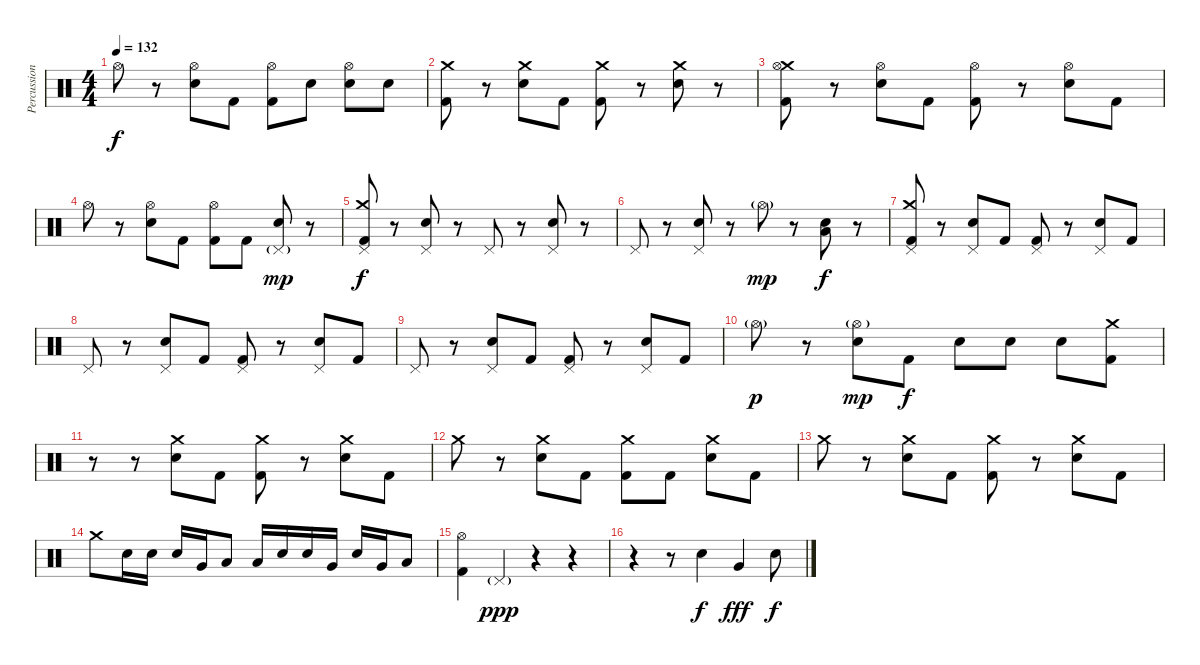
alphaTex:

\track ("Percussion" "Percussion") {instrument percussion}
\staff {score}
\articulation defaults
\ts (4 4)
\tempo 132
\clef neutral
\ks c "Hi-Hat (open)".8{dy f}
r.8 ("Hi-Hat (open)" "Snare (hit) 2").8 "Kick (hit) 2".8 ("Hi-Hat (open)" "Kick (hit) 2").8 "Snare (hit) 2".8 ("Hi-Hat (open)" "Snare (hit) 2").8 "Snare (hit) 2".8 |
("Crash medium (hit)" "Kick (hit) 2").8 r.8 ("Crash medium (hit)" "Snare (hit) 2").8 "Kick (hit) 2".8 ("Crash medium (hit)" "Kick (hit) 2").8 r.8 ("Crash medium (hit)" "Snare (hit) 2").8 r.8 |
("Crash medium (hit)" "Hi-Hat (open)" "Kick (hit) 2").8 r.8 ("Hi-Hat (open)" "Snare (hit) 2").8 "Kick (hit) 2".8 ("Hi-Hat (open)" "Kick (hit) 2").8 r.8 ("Hi-Hat (open)" "Snare (hit) 2").8 "Kick (hit) 2".8 |
"Hi-Hat (open)".8 r.8 ("Hi-Hat (open)" "Snare (hit) 2").8 "Kick (hit) 2".8 ("Hi-Hat (open)" "Kick (hit) 2").8 "Kick (hit) 2".8 ("Pedal Hi-Hat (hit)"{g} "Snare (hit) 2").8{dy mp} r.8 |
("Crash medium (hit)" "Pedal Hi-Hat (hit)" "Kick (hit) 2").8{dy f} r.8 ("Pedal Hi-Hat (hit)" "Snare (hit) 2").8 r.8 "Pedal Hi-Hat (hit)".8 r.8 ("Pedal Hi-Hat (hit)" "Snare (hit) 2").8 r.8 |
"Pedal Hi-Hat (hit)".8 r.8 ("Pedal Hi-Hat (hit)" "Snare (hit) 2").8 r.8 "Hi-Hat (open)"{g}.8{dy mp} r.8 ("Snare (hit) 2" "Low Floor Tom (hit)").8{dy f} r.8 |
("Crash medium (hit)" "Pedal Hi-Hat (hit)" "Kick (hit) 2").8 r.8 ("Pedal Hi-Hat (hit)" "Snare (hit) 2").8 "Kick (hit) 2".8 ("Pedal Hi-Hat (hit)" "Kick (hit) 2").8 r.8 ("Pedal Hi-Hat (hit)" "Snare (hit) 2").8 "Kick (hit) 2".8 |
"Pedal Hi-Hat (hit)".8 r.8 ("Pedal Hi-Hat (hit)" "Snare (hit) 2").8 "Kick (hit) 2".8 ("Pedal Hi-Hat (hit)" "Kick (hit) 2").8 r.8 ("Pedal Hi-Hat (hit)" "Snare (hit) 2").8 "Kick (hit) 2".8 |
"Pedal Hi-Hat (hit)".8 r.8 ("Pedal Hi-Hat (hit)" "Snare (hit) 2").8 "Kick (hit) 2".8 ("Pedal Hi-Hat (hit)" "Kick (hit) 2").8 r.8 ("Pedal Hi-Hat (hit)" "Snare (hit) 2").8 "Kick (hit) 2".8 |
"Hi-Hat (open)"{g}.8{dy p} r.8 ("Hi-Hat (open)"{g} "Snare (hit) 2").8{dy mp} "Kick (hit) 2".8{dy f} "Snare (hit) 2".8 "Snare (hit) 2".8 "Snare (hit) 2".8 ("Crash medium (hit)" "Kick (hit) 2").8 |
r.8 r.8 ("Crash medium (hit)" "Snare (hit) 2").8 "Kick (hit) 2".8 ("Crash medium (hit)" "Kick (hit) 2").8 r.8 ("Crash medium (hit)" "Snare (hit) 2").8 "Kick (hit) 2".8 |
"Crash medium (hit)".8 r.8 ("Crash medium (hit)" "Snare (hit) 2").8 "Kick (hit) 2".8 ("Crash medium (hit)" "Kick (hit) 2").8 "Kick (hit) 2".8 ("Crash medium (hit)" "Snare (hit) 2").8 "Kick (hit) 2".8 |
"Crash medium (hit)".8 r.8 ("Crash medium (hit)" "Snare (hit) 2").8 "Kick (hit) 2".8 ("Crash medium (hit)" "Kick (hit) 2").8 r.8 ("Crash medium (hit)" "Snare (hit) 2").8 "Kick (hit) 2".8 |
"Crash medium (hit)".8 "Snare (hit) 2".16 "Snare (hit) 2".16 "Snare (hit) 2".16 "Very Low Tom (hit)".16 "Low Floor Tom (hit)".8 "Low Floor Tom (hit)".16 "Snare (hit) 2".16 "Snare (hit) 2".16 "Very Low Tom (hit)".16 "Snare (hit) 2".16 "Very Low Tom (hit)".16 "Low Floor Tom (hit)".8 |
("Hi-Hat (open)" "Kick (hit) 2").4 "Pedal Hi-Hat (hit)"{g}.4{dy ppp} r.4 r.4 |
r.4 r.8 "Snare (hit) 2".4{dy f} "Very Low Tom (hit)".4{dy fff} "Snare (hit) 2".8{dy f}
